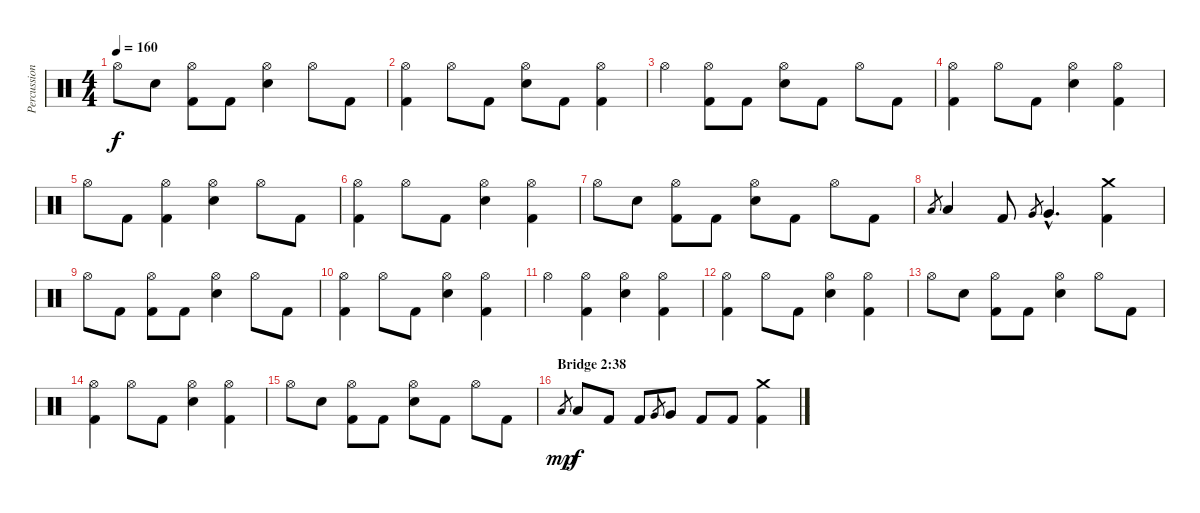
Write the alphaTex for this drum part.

\track ("Percussion" "Percussion") {instrument percussion}
\staff {score}
\articulation defaults
\ts (4 4)
\tempo 160
\clef neutral
\ks c "Hi-Hat (open)".8{dy f} "Snare (hit) 2".8
("Hi-Hat (open)" "Kick (hit) 2").8 "Kick (hit) 2".8 ("Hi-Hat (open)" "Snare (hit) 2").4 "Hi-Hat (open)".8 "Kick (hit) 2".8 |
("Hi-Hat (open)" "Kick (hit) 2").4 "Hi-Hat (open)".8 "Kick (hit) 2".8 ("Hi-Hat (open)" "Snare (hit) 2").8 "Kick (hit) 2".8 ("Hi-Hat (open)" "Kick (hit) 2").4 |
"Hi-Hat (open)".4 ("Hi-Hat (open)" "Kick (hit) 2").8 "Kick (hit) 2".8 ("Hi-Hat (open)" "Snare (hit) 2").8 "Kick (hit) 2".8 "Hi-Hat (open)".8 "Kick (hit) 2".8 |
("Hi-Hat (open)" "Kick (hit) 2").4 "Hi-Hat (open)".8 "Kick (hit) 2".8 ("Hi-Hat (open)" "Snare (hit) 2").4 ("Hi-Hat (open)" "Kick (hit) 2").4 |
"Hi-Hat (open)".8 "Kick (hit) 2".8 ("Hi-Hat (open)" "Kick (hit) 2").4 ("Hi-Hat (open)" "Snare (hit) 2").4 "Hi-Hat (open)".8 "Kick (hit) 2".8 |
("Hi-Hat (open)" "Kick (hit) 2").4 "Hi-Hat (open)".8 "Kick (hit) 2".8 ("Hi-Hat (open)" "Snare (hit) 2").4 ("Hi-Hat (open)" "Kick (hit) 2").4 |
"Hi-Hat (open)".8 "Snare (hit) 2".8 ("Hi-Hat (open)" "Kick (hit) 2").8 "Kick (hit) 2".8 ("Hi-Hat (open)" "Snare (hit) 2").8 "Kick (hit) 2".8 "Hi-Hat (open)".8 "Kick (hit) 2".8 |
"Low Tom (hit)".8{gr} "Low Tom (hit)".4 "Kick (hit) 2".8 "Very Low Tom (hit)".8{gr} "Very Low Tom (hit)"{hac}.4{d} ("Crash medium (hit)" "Kick (hit) 2").4 |
"Hi-Hat (open)".8 "Kick (hit) 2".8 ("Hi-Hat (open)" "Kick (hit) 2").8 "Kick (hit) 2".8 ("Hi-Hat (open)" "Snare (hit) 2").4 "Hi-Hat (open)".8 "Kick (hit) 2".8 |
("Hi-Hat (open)" "Kick (hit) 2").4 "Hi-Hat (open)".8 "Kick (hit) 2".8 ("Hi-Hat (open)" "Snare (hit) 2").4 ("Hi-Hat (open)" "Kick (hit) 2").4 |
"Hi-Hat (open)".4 ("Hi-Hat (open)" "Kick (hit) 2").4 ("Hi-Hat (open)" "Snare (hit) 2").4 ("Hi-Hat (open)" "Kick (hit) 2").4 |
("Hi-Hat (open)" "Kick (hit) 2").4 "Hi-Hat (open)".8 "Kick (hit) 2".8 ("Hi-Hat (open)" "Snare (hit) 2").4 ("Hi-Hat (open)" "Kick (hit) 2").4 |
"Hi-Hat (open)".8 "Snare (hit) 2".8 ("Hi-Hat (open)" "Kick (hit) 2").8 "Kick (hit) 2".8 ("Hi-Hat (open)" "Snare (hit) 2").4 "Hi-Hat (open)".8 "Kick (hit) 2".8 |
("Hi-Hat (open)" "Kick (hit) 2").4 "Hi-Hat (open)".8 "Kick (hit) 2".8 ("Hi-Hat (open)" "Snare (hit) 2").4 ("Hi-Hat (open)" "Kick (hit) 2").4 |
"Hi-Hat (open)".8 "Snare (hit) 2".8 ("Hi-Hat (open)" "Kick (hit) 2").8 "Kick (hit) 2".8 ("Hi-Hat (open)" "Snare (hit) 2").8 "Kick (hit) 2".8 "Hi-Hat (open)".8 "Kick (hit) 2".8 |
\section ("" "Bridge 2:38")
"Low Tom (hit)".8{gr dy mp} "Low Tom (hit)".8{dy f} "Kick (hit) 2".8 "Kick (hit) 2".8 "Very Low Tom (hit)".8{gr} "Very Low Tom (hit)".8 "Kick (hit) 2".8 "Kick (hit) 2".8 ("Crash medium (hit)" "Kick (hit) 2").4
